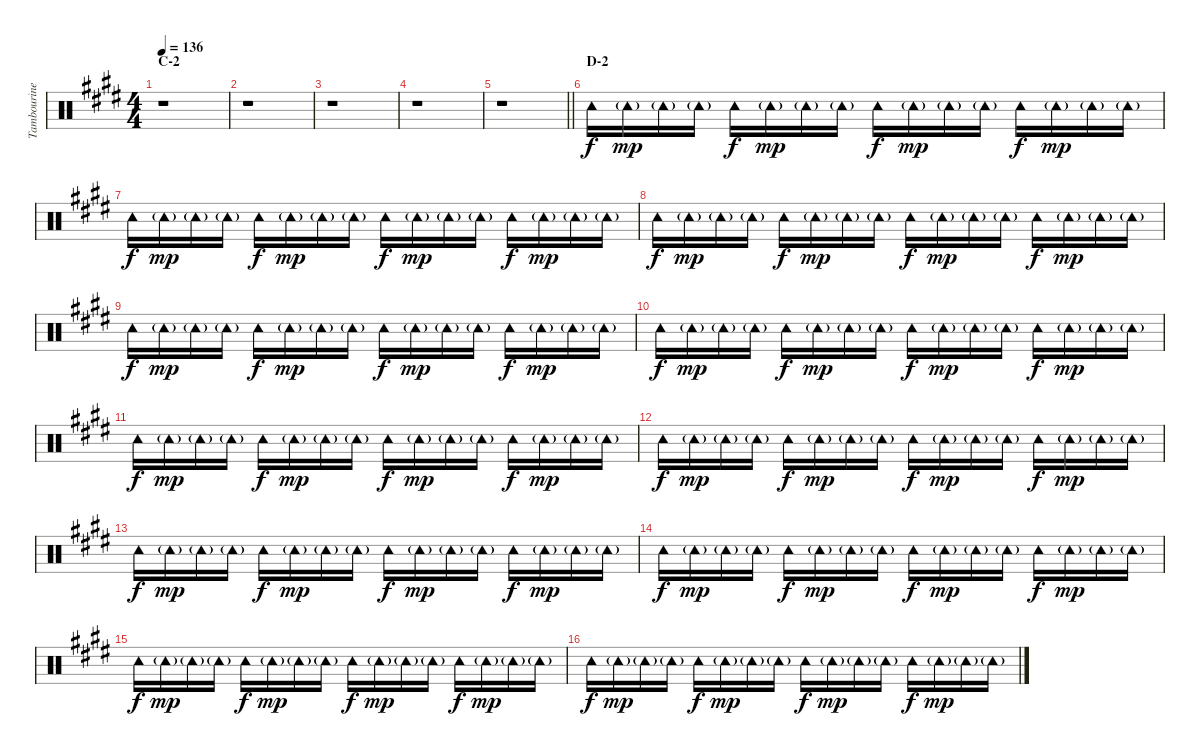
\track ("Tambourine" "Tambourine") {instrument percussion}
\staff {score}
\articulation defaults
\ts (4 4)
\section ("" "C-2")
\tempo 136
\clef neutral
\ks e
r.1{dy f} |
r.1 |
r.1 |
r.1 |
\barLineRight lightlight
r.1 |
\section ("" "D-2")
"Tambourine (hit)".16 "Tambourine (hit)"{g}.16{dy mp} "Tambourine (hit)"{g}.16 "Tambourine (hit)"{g}.16 "Tambourine (hit)".16{dy f} "Tambourine (hit)"{g}.16{dy mp} "Tambourine (hit)"{g}.16 "Tambourine (hit)"{g}.16 "Tambourine (hit)".16{dy f} "Tambourine (hit)"{g}.16{dy mp} "Tambourine (hit)"{g}.16 "Tambourine (hit)"{g}.16 "Tambourine (hit)".16{dy f} "Tambourine (hit)"{g}.16{dy mp} "Tambourine (hit)"{g}.16 "Tambourine (hit)"{g}.16 |
"Tambourine (hit)".16{dy f} "Tambourine (hit)"{g}.16{dy mp} "Tambourine (hit)"{g}.16 "Tambourine (hit)"{g}.16 "Tambourine (hit)".16{dy f} "Tambourine (hit)"{g}.16{dy mp} "Tambourine (hit)"{g}.16 "Tambourine (hit)"{g}.16 "Tambourine (hit)".16{dy f} "Tambourine (hit)"{g}.16{dy mp} "Tambourine (hit)"{g}.16 "Tambourine (hit)"{g}.16 "Tambourine (hit)".16{dy f} "Tambourine (hit)"{g}.16{dy mp} "Tambourine (hit)"{g}.16 "Tambourine (hit)"{g}.16 |
"Tambourine (hit)".16{dy f} "Tambourine (hit)"{g}.16{dy mp} "Tambourine (hit)"{g}.16 "Tambourine (hit)"{g}.16 "Tambourine (hit)".16{dy f} "Tambourine (hit)"{g}.16{dy mp} "Tambourine (hit)"{g}.16 "Tambourine (hit)"{g}.16 "Tambourine (hit)".16{dy f} "Tambourine (hit)"{g}.16{dy mp} "Tambourine (hit)"{g}.16 "Tambourine (hit)"{g}.16 "Tambourine (hit)".16{dy f} "Tambourine (hit)"{g}.16{dy mp} "Tambourine (hit)"{g}.16 "Tambourine (hit)"{g}.16 |
"Tambourine (hit)".16{dy f} "Tambourine (hit)"{g}.16{dy mp} "Tambourine (hit)"{g}.16 "Tambourine (hit)"{g}.16 "Tambourine (hit)".16{dy f} "Tambourine (hit)"{g}.16{dy mp} "Tambourine (hit)"{g}.16 "Tambourine (hit)"{g}.16 "Tambourine (hit)".16{dy f} "Tambourine (hit)"{g}.16{dy mp} "Tambourine (hit)"{g}.16 "Tambourine (hit)"{g}.16 "Tambourine (hit)".16{dy f} "Tambourine (hit)"{g}.16{dy mp} "Tambourine (hit)"{g}.16 "Tambourine (hit)"{g}.16 |
"Tambourine (hit)".16{dy f} "Tambourine (hit)"{g}.16{dy mp} "Tambourine (hit)"{g}.16 "Tambourine (hit)"{g}.16 "Tambourine (hit)".16{dy f} "Tambourine (hit)"{g}.16{dy mp} "Tambourine (hit)"{g}.16 "Tambourine (hit)"{g}.16 "Tambourine (hit)".16{dy f} "Tambourine (hit)"{g}.16{dy mp} "Tambourine (hit)"{g}.16 "Tambourine (hit)"{g}.16 "Tambourine (hit)".16{dy f} "Tambourine (hit)"{g}.16{dy mp} "Tambourine (hit)"{g}.16 "Tambourine (hit)"{g}.16 |
"Tambourine (hit)".16{dy f} "Tambourine (hit)"{g}.16{dy mp} "Tambourine (hit)"{g}.16 "Tambourine (hit)"{g}.16 "Tambourine (hit)".16{dy f} "Tambourine (hit)"{g}.16{dy mp} "Tambourine (hit)"{g}.16 "Tambourine (hit)"{g}.16 "Tambourine (hit)".16{dy f} "Tambourine (hit)"{g}.16{dy mp} "Tambourine (hit)"{g}.16 "Tambourine (hit)"{g}.16 "Tambourine (hit)".16{dy f} "Tambourine (hit)"{g}.16{dy mp} "Tambourine (hit)"{g}.16 "Tambourine (hit)"{g}.16 |
"Tambourine (hit)".16{dy f} "Tambourine (hit)"{g}.16{dy mp} "Tambourine (hit)"{g}.16 "Tambourine (hit)"{g}.16 "Tambourine (hit)".16{dy f} "Tambourine (hit)"{g}.16{dy mp} "Tambourine (hit)"{g}.16 "Tambourine (hit)"{g}.16 "Tambourine (hit)".16{dy f} "Tambourine (hit)"{g}.16{dy mp} "Tambourine (hit)"{g}.16 "Tambourine (hit)"{g}.16 "Tambourine (hit)".16{dy f} "Tambourine (hit)"{g}.16{dy mp} "Tambourine (hit)"{g}.16 "Tambourine (hit)"{g}.16 |
"Tambourine (hit)".16{dy f} "Tambourine (hit)"{g}.16{dy mp} "Tambourine (hit)"{g}.16 "Tambourine (hit)"{g}.16 "Tambourine (hit)".16{dy f} "Tambourine (hit)"{g}.16{dy mp} "Tambourine (hit)"{g}.16 "Tambourine (hit)"{g}.16 "Tambourine (hit)".16{dy f} "Tambourine (hit)"{g}.16{dy mp} "Tambourine (hit)"{g}.16 "Tambourine (hit)"{g}.16 "Tambourine (hit)".16{dy f} "Tambourine (hit)"{g}.16{dy mp} "Tambourine (hit)"{g}.16 "Tambourine (hit)"{g}.16 |
"Tambourine (hit)".16{dy f} "Tambourine (hit)"{g}.16{dy mp} "Tambourine (hit)"{g}.16 "Tambourine (hit)"{g}.16 "Tambourine (hit)".16{dy f} "Tambourine (hit)"{g}.16{dy mp} "Tambourine (hit)"{g}.16 "Tambourine (hit)"{g}.16 "Tambourine (hit)".16{dy f} "Tambourine (hit)"{g}.16{dy mp} "Tambourine (hit)"{g}.16 "Tambourine (hit)"{g}.16 "Tambourine (hit)".16{dy f} "Tambourine (hit)"{g}.16{dy mp} "Tambourine (hit)"{g}.16 "Tambourine (hit)"{g}.16 |
"Tambourine (hit)".16{dy f} "Tambourine (hit)"{g}.16{dy mp} "Tambourine (hit)"{g}.16 "Tambourine (hit)"{g}.16 "Tambourine (hit)".16{dy f} "Tambourine (hit)"{g}.16{dy mp} "Tambourine (hit)"{g}.16 "Tambourine (hit)"{g}.16 "Tambourine (hit)".16{dy f} "Tambourine (hit)"{g}.16{dy mp} "Tambourine (hit)"{g}.16 "Tambourine (hit)"{g}.16 "Tambourine (hit)".16{dy f} "Tambourine (hit)"{g}.16{dy mp} "Tambourine (hit)"{g}.16 "Tambourine (hit)"{g}.16 |
"Tambourine (hit)".16{dy f} "Tambourine (hit)"{g}.16{dy mp} "Tambourine (hit)"{g}.16 "Tambourine (hit)"{g}.16 "Tambourine (hit)".16{dy f} "Tambourine (hit)"{g}.16{dy mp} "Tambourine (hit)"{g}.16 "Tambourine (hit)"{g}.16 "Tambourine (hit)".16{dy f} "Tambourine (hit)"{g}.16{dy mp} "Tambourine (hit)"{g}.16 "Tambourine (hit)"{g}.16 "Tambourine (hit)".16{dy f} "Tambourine (hit)"{g}.16{dy mp} "Tambourine (hit)"{g}.16 "Tambourine (hit)"{g}.16
